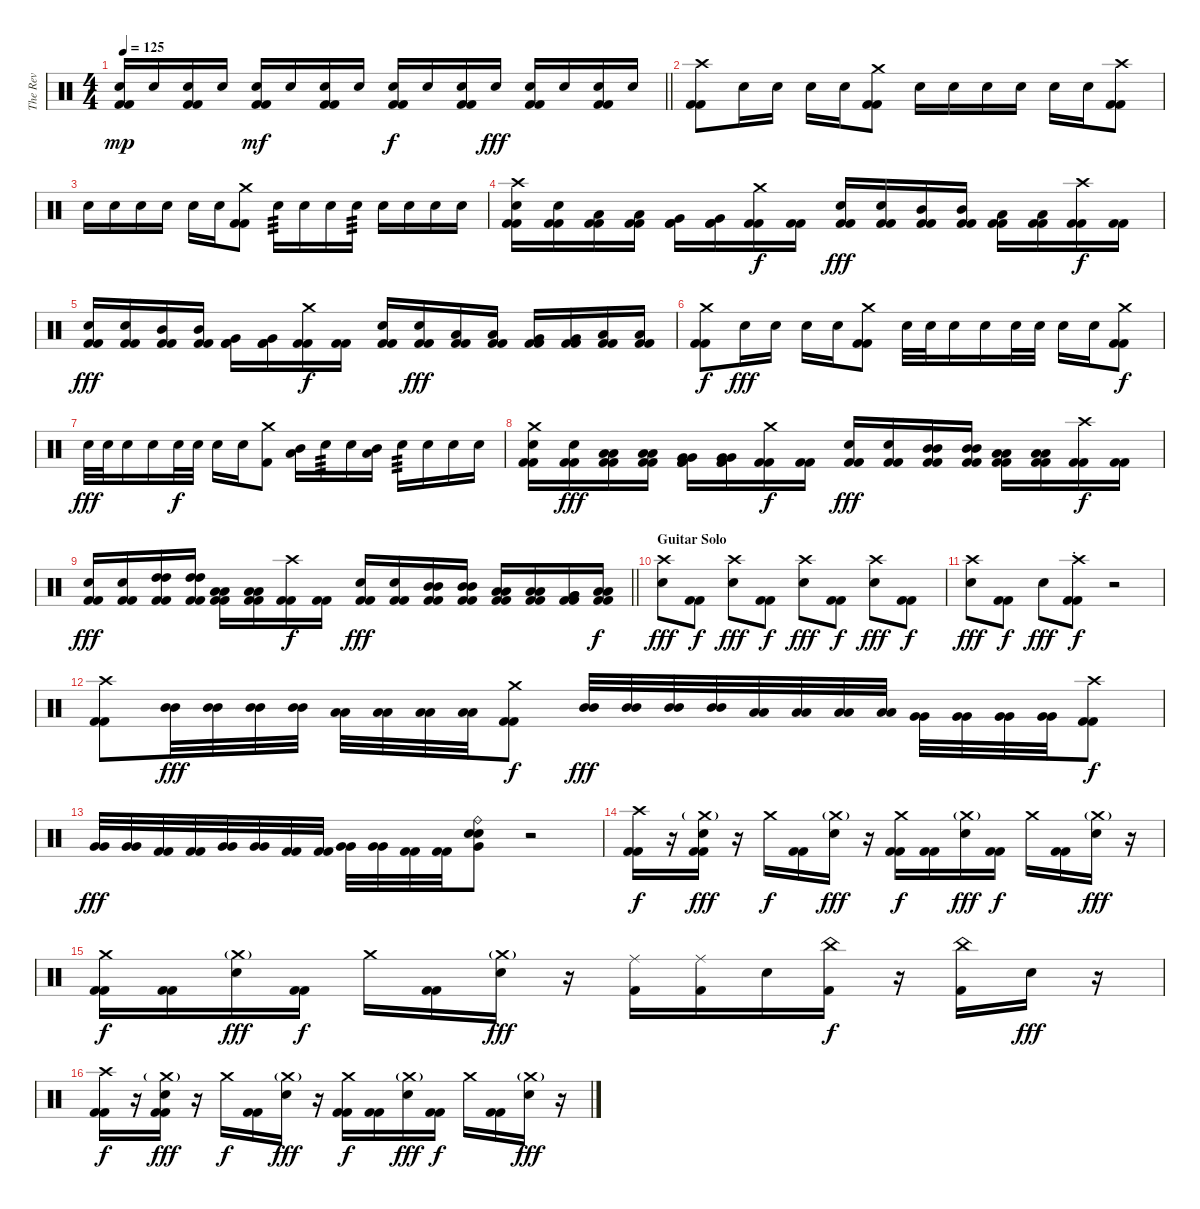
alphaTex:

\track ("The Rev" "The Rev") {mute instrument percussion}
\staff {score}
\articulation defaults
\ts (4 4)
\tempo 125
\clef neutral
\barLineRight lightlight
\ks c
("Electric Snare (hit)" "Kick (hit) 2" "Kick (hit) 2").16{dy mp} "Electric Snare (hit)".16 ("Electric Snare (hit)" "Kick (hit) 2" "Kick (hit) 2").16 "Electric Snare (hit)".16 ("Electric Snare (hit)" "Kick (hit) 2" "Kick (hit) 2").16{dy mf} "Electric Snare (hit)".16 ("Electric Snare (hit)" "Kick (hit) 2" "Kick (hit) 2").16 "Electric Snare (hit)".16 ("Electric Snare (hit)" "Kick (hit) 2" "Kick (hit) 2").16{dy f} "Electric Snare (hit)".16 ("Electric Snare (hit)" "Kick (hit) 2" "Kick (hit) 2").16 "Electric Snare (hit)".16{dy fff} ("Electric Snare (hit)" "Kick (hit) 2" "Kick (hit) 2").16 "Electric Snare (hit)".16 ("Electric Snare (hit)" "Kick (hit) 2" "Kick (hit) 2").16 "Electric Snare (hit)".16 |
("Crash high (hit)" "Kick (hit) 2" "Kick (hit) 2").8 "Electric Snare (hit)".16 "Electric Snare (hit)".16 "Electric Snare (hit)".16 "Electric Snare (hit)".16 ("Crash medium (hit)" "Kick (hit) 2" "Kick (hit) 2").8 "Electric Snare (hit)".16 "Electric Snare (hit)".16 "Electric Snare (hit)".16 "Electric Snare (hit)".16 "Electric Snare (hit)".16 "Electric Snare (hit)".16 ("Crash high (hit)" "Kick (hit) 2" "Kick (hit) 2").8 |
"Electric Snare (hit)".16 "Electric Snare (hit)".16 "Electric Snare (hit)".16 "Electric Snare (hit)".16 "Electric Snare (hit)".16 "Electric Snare (hit)".16 ("Crash medium (hit)" "Kick (hit) 2" "Kick (hit) 2").8 "Electric Snare (hit)".16{tp 3} "Electric Snare (hit)".16 "Electric Snare (hit)".16 "Electric Snare (hit)".16{tp 3} "Electric Snare (hit)".16 "Electric Snare (hit)".16 "Electric Snare (hit)".16 "Electric Snare (hit)".16 |
("Crash high (hit)" "Electric Snare (hit)" "Kick (hit) 2" "Kick (hit) 2").16 ("Electric Snare (hit)" "Kick (hit) 2" "Kick (hit) 2").16 ("Low Tom (hit)" "Kick (hit) 2" "Kick (hit) 2").16 ("Low Tom (hit)" "Kick (hit) 2" "Kick (hit) 2").16 ("Very Low Tom (hit)" "Kick (hit) 2" "Kick (hit) 2").16 ("Very Low Tom (hit)" "Kick (hit) 2" "Kick (hit) 2").16 ("Crash medium (hit)" "Kick (hit) 2" "Kick (hit) 2").16{dy f} ("Kick (hit) 2" "Kick (hit) 2").16 ("Electric Snare (hit)" "Kick (hit) 2" "Kick (hit) 2").16{dy fff} ("Electric Snare (hit)" "Kick (hit) 2" "Kick (hit) 2").16 ("Mid Tom (hit)" "Kick (hit) 2" "Kick (hit) 2").16 ("Mid Tom (hit)" "Kick (hit) 2" "Kick (hit) 2").16 ("Low Tom (hit)" "Kick (hit) 2" "Kick (hit) 2").16 ("Low Tom (hit)" "Kick (hit) 2" "Kick (hit) 2").16 ("Crash high (hit)" "Kick (hit) 2" "Kick (hit) 2").16{dy f} ("Kick (hit) 2" "Kick (hit) 2").16 |
("Electric Snare (hit)" "Kick (hit) 2" "Kick (hit) 2").16{dy fff} ("Electric Snare (hit)" "Kick (hit) 2" "Kick (hit) 2").16 ("Mid Tom (hit)" "Kick (hit) 2" "Kick (hit) 2").16 ("Mid Tom (hit)" "Kick (hit) 2" "Kick (hit) 2").16 ("Very Low Tom (hit)" "Kick (hit) 2" "Kick (hit) 2").16 ("Very Low Tom (hit)" "Kick (hit) 2" "Kick (hit) 2").16 ("Crash medium (hit)" "Kick (hit) 2" "Kick (hit) 2").16{dy f} ("Kick (hit) 2" "Kick (hit) 2").16 ("Electric Snare (hit)" "Kick (hit) 2" "Kick (hit) 2").16 ("Electric Snare (hit)" "Kick (hit) 2" "Kick (hit) 2").16{dy fff} ("Low Tom (hit)" "Kick (hit) 2" "Kick (hit) 2").16 ("Low Tom (hit)" "Kick (hit) 2" "Kick (hit) 2").16 ("Very Low Tom (hit)" "Kick (hit) 2" "Kick (hit) 2").16 ("Very Low Tom (hit)" "Kick (hit) 2" "Kick (hit) 2").16 ("Low Floor Tom (hit)" "Kick (hit) 2" "Kick (hit) 2").16 ("Low Floor Tom (hit)" "Kick (hit) 2" "Kick (hit) 2").16 |
("Crash medium (hit)" "Kick (hit) 2" "Kick (hit) 2").8{dy f} "Electric Snare (hit)".16{dy fff} "Electric Snare (hit)".16 "Electric Snare (hit)".16 "Electric Snare (hit)".16 ("Crash medium (hit)" "Kick (hit) 2" "Kick (hit) 2").8 "Electric Snare (hit)".32 "Electric Snare (hit)".32 "Electric Snare (hit)".16 "Electric Snare (hit)".16 "Electric Snare (hit)".32 "Electric Snare (hit)".32 "Electric Snare (hit)".16 "Electric Snare (hit)".16 ("Crash medium (hit)" "Kick (hit) 2" "Kick (hit) 2").8{dy f} |
"Electric Snare (hit)".32{dy fff} "Electric Snare (hit)".32 "Electric Snare (hit)".16 "Electric Snare (hit)".16 "Electric Snare (hit)".32{dy f} "Electric Snare (hit)".32 "Electric Snare (hit)".16 "Electric Snare (hit)".16 ("Crash medium (hit)" "Kick (hit) 2").8 ("Mid Tom (hit)" "Low Tom (hit)").16 "Electric Snare (hit)".16{tp 3} "Electric Snare (hit)".16 ("Mid Tom (hit)" "Low Tom (hit)").16 "Electric Snare (hit)".16{tp 3} "Electric Snare (hit)".16 "Electric Snare (hit)".16 "Electric Snare (hit)".16 |
("Crash medium (hit)" "Electric Snare (hit)" "Kick (hit) 2" "Kick (hit) 2").16 ("Electric Snare (hit)" "Kick (hit) 2" "Kick (hit) 2").16{dy fff} ("Low Tom (hit)" "Low Tom (hit)" "Kick (hit) 2" "Kick (hit) 2").16 ("Low Tom (hit)" "Low Tom (hit)" "Kick (hit) 2" "Kick (hit) 2").16 ("Very Low Tom (hit)" "Very Low Tom (hit)" "Kick (hit) 2" "Kick (hit) 2").16 ("Very Low Tom (hit)" "Very Low Tom (hit)" "Kick (hit) 2" "Kick (hit) 2").16 ("Crash medium (hit)" "Kick (hit) 2" "Kick (hit) 2").16{dy f} ("Kick (hit) 2" "Kick (hit) 2").16 ("Electric Snare (hit)" "Kick (hit) 2" "Kick (hit) 2").16{dy fff} ("Electric Snare (hit)" "Kick (hit) 2" "Kick (hit) 2").16 ("Mid Tom (hit)" "Mid Tom (hit)" "Kick (hit) 2" "Kick (hit) 2").16 ("Mid Tom (hit)" "Mid Tom (hit)" "Kick (hit) 2" "Kick (hit) 2").16 ("Low Tom (hit)" "Low Tom (hit)" "Kick (hit) 2" "Kick (hit) 2").16 ("Low Tom (hit)" "Low Tom (hit)" "Kick (hit) 2" "Kick (hit) 2").16 ("Crash high (hit)" "Kick (hit) 2" "Kick (hit) 2").16{dy f} ("Kick (hit) 2" "Kick (hit) 2").16 |
\barLineRight lightlight
("Electric Snare (hit)" "Kick (hit) 2" "Kick (hit) 2").16{dy fff} ("Electric Snare (hit)" "Kick (hit) 2" "Kick (hit) 2").16 ("High Tom (hit)" "High Tom (hit)" "Kick (hit) 2" "Kick (hit) 2").16 ("High Tom (hit)" "High Tom (hit)" "Kick (hit) 2" "Kick (hit) 2").16 ("Low Tom (hit)" "Low Tom (hit)" "Kick (hit) 2" "Kick (hit) 2").16 ("Low Tom (hit)" "Low Tom (hit)" "Kick (hit) 2" "Kick (hit) 2").16 ("Crash high (hit)" "Kick (hit) 2" "Kick (hit) 2").16{dy f} ("Kick (hit) 2" "Kick (hit) 2").16 ("Electric Snare (hit)" "Kick (hit) 2" "Kick (hit) 2").16{dy fff} ("Electric Snare (hit)" "Kick (hit) 2" "Kick (hit) 2").16 ("Mid Tom (hit)" "Mid Tom (hit)" "Kick (hit) 2" "Kick (hit) 2").16 ("Mid Tom (hit)" "Mid Tom (hit)" "Kick (hit) 2" "Kick (hit) 2").16 ("Low Tom (hit)" "Low Tom (hit)" "Kick (hit) 2" "Kick (hit) 2").16 ("Low Tom (hit)" "Low Tom (hit)" "Kick (hit) 2" "Kick (hit) 2").16 ("Very Low Tom (hit)" "Very Low Tom (hit)" "Kick (hit) 2" "Kick (hit) 2").16 ("Low Floor Tom (hit)" "Low Floor Tom (hit)" "Kick (hit) 2" "Kick (hit) 2").16{dy f} |
\section ("" "Guitar Solo")
("Crash high (hit)" "Electric Snare (hit)").8{dy fff} ("Kick (hit) 2" "Kick (hit) 2").8{dy f} ("Crash high (hit)" "Electric Snare (hit)").8{dy fff} ("Kick (hit) 2" "Kick (hit) 2").8{dy f} ("Crash high (hit)" "Electric Snare (hit)").8{dy fff} ("Kick (hit) 2" "Kick (hit) 2").8{dy f} ("Crash high (hit)" "Electric Snare (hit)").8{dy fff} ("Kick (hit) 2" "Kick (hit) 2").8{dy f} |
("Crash high (hit)" "Electric Snare (hit)").8{dy fff} ("Kick (hit) 2" "Kick (hit) 2").8{dy f} "Electric Snare (hit)".8{dy fff} ("Crash high (hit)"{st} "Kick (hit) 2" "Kick (hit) 2").8{dy f} r.2 |
("Crash high (hit)" "Kick (hit) 2" "Kick (hit) 2").8 ("Mid Tom (hit)" "Mid Tom (hit)").32{dy fff} ("Mid Tom (hit)" "Mid Tom (hit)").32 ("Mid Tom (hit)" "Mid Tom (hit)").32 ("Mid Tom (hit)" "Mid Tom (hit)").32 ("Low Tom (hit)" "Low Tom (hit)").32 ("Low Tom (hit)" "Low Tom (hit)").32 ("Low Tom (hit)" "Low Tom (hit)").32 ("Low Tom (hit)" "Low Tom (hit)").32 ("Crash medium (hit)" "Kick (hit) 2" "Kick (hit) 2").8{dy f} ("Mid Tom (hit)" "Mid Tom (hit)").32{dy fff} ("Mid Tom (hit)" "Mid Tom (hit)").32 ("Mid Tom (hit)" "Mid Tom (hit)").32 ("Mid Tom (hit)" "Mid Tom (hit)").32 ("Low Tom (hit)" "Low Tom (hit)").32 ("Low Tom (hit)" "Low Tom (hit)").32 ("Low Tom (hit)" "Low Tom (hit)").32 ("Low Tom (hit)" "Low Tom (hit)").32 ("Very Low Tom (hit)" "Very Low Tom (hit)").32 ("Very Low Tom (hit)" "Very Low Tom (hit)").32 ("Very Low Tom (hit)" "Very Low Tom (hit)").32 ("Very Low Tom (hit)" "Very Low Tom (hit)").32 ("Crash high (hit)" "Kick (hit) 2" "Kick (hit) 2").8{dy f} |
("Very Low Tom (hit)" "Very Low Tom (hit)").32{dy fff} ("Very Low Tom (hit)" "Very Low Tom (hit)").32 ("Kick (hit) 2" "Kick (hit) 2").32 ("Kick (hit) 2" "Kick (hit) 2").32 ("Very Low Tom (hit)" "Very Low Tom (hit)").32 ("Very Low Tom (hit)" "Very Low Tom (hit)").32 ("Kick (hit) 2" "Kick (hit) 2").32 ("Kick (hit) 2" "Kick (hit) 2").32 ("Very Low Tom (hit)" "Very Low Tom (hit)").32 ("Very Low Tom (hit)" "Very Low Tom (hit)").32 ("Kick (hit) 2" "Kick (hit) 2").32 ("Kick (hit) 2" "Kick (hit) 2").32 ("Ride (bell)" "Electric Snare (hit)" "Electric Snare (hit)" "Very Low Tom (hit)").8 r.2 |
("Crash high (hit)" "Kick (hit) 2" "Kick (hit) 2").16{dy f} r.16 ("Crash medium (hit)"{g} "Electric Snare (hit)" "Kick (hit) 2" "Kick (hit) 2").16{dy fff} r.16 "Crash medium (hit)".16{dy f} ("Kick (hit) 2" "Kick (hit) 2").16 ("Crash medium (hit)"{g} "Electric Snare (hit)").16{dy fff} r.16 ("Crash medium (hit)" "Kick (hit) 2" "Kick (hit) 2").16{dy f} ("Kick (hit) 2" "Kick (hit) 2").16 ("Crash medium (hit)"{g} "Electric Snare (hit)").16{dy fff} ("Kick (hit) 2" "Kick (hit) 2").16{dy f} "Crash medium (hit)".16 ("Kick (hit) 2" "Kick (hit) 2").16 ("Crash medium (hit)"{g} "Electric Snare (hit)").16{dy fff} r.16 |
("Crash medium (hit)" "Kick (hit) 2" "Kick (hit) 2").16{dy f} ("Kick (hit) 2" "Kick (hit) 2").16 ("Crash medium (hit)"{g} "Electric Snare (hit)").16{dy fff} ("Kick (hit) 2" "Kick (hit) 2").16{dy f} "Crash medium (hit)".16 ("Kick (hit) 2" "Kick (hit) 2").16 ("Crash medium (hit)"{g} "Electric Snare (hit)").16{dy fff} r.16 ("Ride (middle)" "Kick (hit) 2").16 ("Ride (middle)" "Kick (hit) 2").16 "Electric Snare (hit)".16 ("China (hit)" "Kick (hit) 2").16{dy f} r.16 ("China (hit)" "Kick (hit) 2").16 "Electric Snare (hit)".16{dy fff} r.16 |
("Crash high (hit)" "Kick (hit) 2" "Kick (hit) 2").16{dy f} r.16 ("Crash medium (hit)"{g} "Electric Snare (hit)" "Kick (hit) 2" "Kick (hit) 2").16{dy fff} r.16 "Crash medium (hit)".16{dy f} ("Kick (hit) 2" "Kick (hit) 2").16 ("Crash medium (hit)"{g} "Electric Snare (hit)").16{dy fff} r.16 ("Crash medium (hit)" "Kick (hit) 2" "Kick (hit) 2").16{dy f} ("Kick (hit) 2" "Kick (hit) 2").16 ("Crash medium (hit)"{g} "Electric Snare (hit)").16{dy fff} ("Kick (hit) 2" "Kick (hit) 2").16{dy f} "Crash medium (hit)".16 ("Kick (hit) 2" "Kick (hit) 2").16 ("Crash medium (hit)"{g} "Electric Snare (hit)").16{dy fff} r.16
